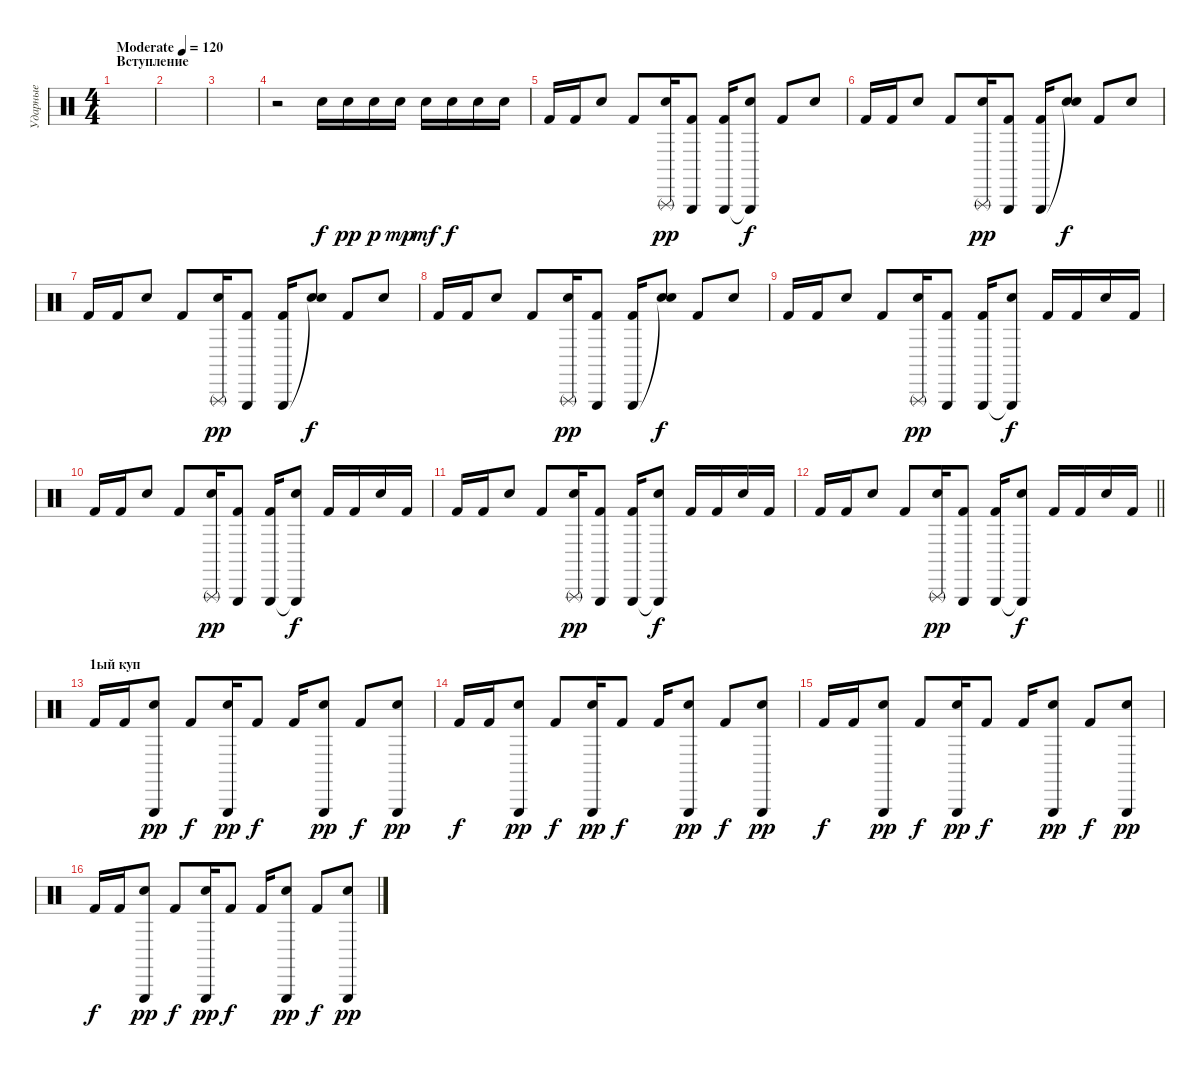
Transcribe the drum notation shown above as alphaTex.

\track ("Ударные" "Ударные") {instrument percussion}
\staff {score}
\articulation defaults
\ts (4 4)
\section ("" "Вступление")
\tempo (120 "Moderate")
\clef neutral
\ks c
|
|
|
r.2 "Electric Snare (hit)".16 "Electric Snare (hit)".16{dy pp} "Electric Snare (hit)".16{dy p} "Electric Snare (hit)".16{dy mp} "Electric Snare (hit)".16{dy mf} "Electric Snare (hit)".16{dy f} "Electric Snare (hit)".16 "Electric Snare (hit)".16 |
"Kick (hit) 2".16 "Kick (hit) 2".16 "Electric Snare (hit)".8 "Kick (hit) 2".8 ("Triangle (rnute)" "Electric Snare (hit)").16{dy pp} ("Triangle (hit)" "Kick (hit) 2").8 ("Triangle (hit)" "Kick (hit) 2").16 ("Triangle (hit)"{t} "Electric Snare (hit)").8{dy f} "Kick (hit) 2".8 "Electric Snare (hit)".8 |
"Kick (hit) 2".16 "Kick (hit) 2".16 "Electric Snare (hit)".8 "Kick (hit) 2".8 ("Triangle (rnute)" "Electric Snare (hit)").16{dy pp} ("Triangle (hit)" "Kick (hit) 2").8 ("Triangle (hit)" "Kick (hit) 2").16 ("Snare (hit)"{t} "Electric Snare (hit)").8{dy f} "Kick (hit) 2".8 "Electric Snare (hit)".8 |
"Kick (hit) 2".16 "Kick (hit) 2".16 "Electric Snare (hit)".8 "Kick (hit) 2".8 ("Triangle (rnute)" "Electric Snare (hit)").16{dy pp} ("Triangle (hit)" "Kick (hit) 2").8 ("Triangle (hit)" "Kick (hit) 2").16 ("Snare (hit)"{t} "Electric Snare (hit)").8{dy f} "Kick (hit) 2".8 "Electric Snare (hit)".8 |
"Kick (hit) 2".16 "Kick (hit) 2".16 "Electric Snare (hit)".8 "Kick (hit) 2".8 ("Triangle (rnute)" "Electric Snare (hit)").16{dy pp} ("Triangle (hit)" "Kick (hit) 2").8 ("Triangle (hit)" "Kick (hit) 2").16 ("Snare (hit)"{t} "Electric Snare (hit)").8{dy f} "Kick (hit) 2".8 "Electric Snare (hit)".8 |
"Kick (hit) 2".16 "Kick (hit) 2".16 "Electric Snare (hit)".8 "Kick (hit) 2".8 ("Triangle (rnute)" "Electric Snare (hit)").16{dy pp} ("Triangle (hit)" "Kick (hit) 2").8 ("Triangle (hit)" "Kick (hit) 2").16 ("Triangle (hit)"{t} "Electric Snare (hit)").8{dy f} "Kick (hit) 2".16 "Kick (hit) 2".16 "Electric Snare (hit)".16 "Kick (hit) 2".16 |
"Kick (hit) 2".16 "Kick (hit) 2".16 "Electric Snare (hit)".8 "Kick (hit) 2".8 ("Triangle (rnute)" "Electric Snare (hit)").16{dy pp} ("Triangle (hit)" "Kick (hit) 2").8 ("Triangle (hit)" "Kick (hit) 2").16 ("Triangle (hit)"{t} "Electric Snare (hit)").8{dy f} "Kick (hit) 2".16 "Kick (hit) 2".16 "Electric Snare (hit)".16 "Kick (hit) 2".16 |
"Kick (hit) 2".16 "Kick (hit) 2".16 "Electric Snare (hit)".8 "Kick (hit) 2".8 ("Triangle (rnute)" "Electric Snare (hit)").16{dy pp} ("Triangle (hit)" "Kick (hit) 2").8 ("Triangle (hit)" "Kick (hit) 2").16 ("Triangle (hit)"{t} "Electric Snare (hit)").8{dy f} "Kick (hit) 2".16 "Kick (hit) 2".16 "Electric Snare (hit)".16 "Kick (hit) 2".16 |
\barLineRight lightlight "Kick (hit) 2".16 "Kick (hit) 2".16 "Electric Snare (hit)".8 "Kick (hit) 2".8
("Triangle (rnute)" "Electric Snare (hit)").16{dy pp} ("Triangle (hit)" "Kick (hit) 2").8 ("Triangle (hit)" "Kick (hit) 2").16 ("Triangle (hit)"{t} "Electric Snare (hit)").8{dy f} "Kick (hit) 2".16 "Kick (hit) 2".16 "Electric Snare (hit)".16 "Kick (hit) 2".16 |
\section ("" "1ый куп")
"Kick (hit) 2".16 "Kick (hit) 2".16 ("Triangle (hit)" "Electric Snare (hit)").8{dy pp} "Kick (hit) 2".8{dy f} ("Triangle (hit)" "Electric Snare (hit)").16{dy pp} "Kick (hit) 2".8{dy f} "Kick (hit) 2".16 ("Triangle (hit)" "Electric Snare (hit)").8{dy pp} "Kick (hit) 2".8{dy f} ("Triangle (hit)" "Electric Snare (hit)").8{dy pp} |
"Kick (hit) 2".16{dy f} "Kick (hit) 2".16 ("Triangle (hit)" "Electric Snare (hit)").8{dy pp} "Kick (hit) 2".8{dy f} ("Triangle (hit)" "Electric Snare (hit)").16{dy pp} "Kick (hit) 2".8{dy f} "Kick (hit) 2".16 ("Triangle (hit)" "Electric Snare (hit)").8{dy pp} "Kick (hit) 2".8{dy f} ("Triangle (hit)" "Electric Snare (hit)").8{dy pp} |
"Kick (hit) 2".16{dy f} "Kick (hit) 2".16 ("Triangle (hit)" "Electric Snare (hit)").8{dy pp} "Kick (hit) 2".8{dy f} ("Triangle (hit)" "Electric Snare (hit)").16{dy pp} "Kick (hit) 2".8{dy f} "Kick (hit) 2".16 ("Triangle (hit)" "Electric Snare (hit)").8{dy pp} "Kick (hit) 2".8{dy f} ("Triangle (hit)" "Electric Snare (hit)").8{dy pp} |
"Kick (hit) 2".16{dy f} "Kick (hit) 2".16 ("Triangle (hit)" "Electric Snare (hit)").8{dy pp} "Kick (hit) 2".8{dy f} ("Triangle (hit)" "Electric Snare (hit)").16{dy pp} "Kick (hit) 2".8{dy f} "Kick (hit) 2".16 ("Triangle (hit)" "Electric Snare (hit)").8{dy pp} "Kick (hit) 2".8{dy f} ("Triangle (hit)" "Electric Snare (hit)").8{dy pp}
